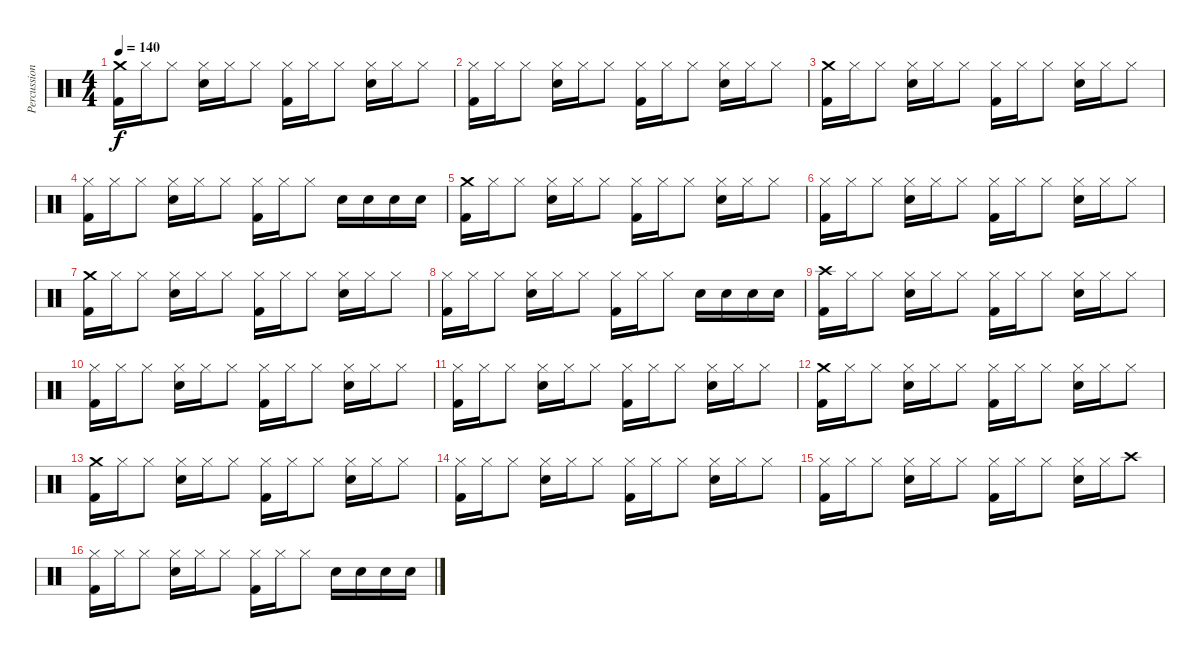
\track ("Percussion" "Percussion") {instrument percussion}
\staff {score}
\articulation defaults
\ts (4 4)
\tempo 140
\clef neutral
\ks c
("Crash medium (hit)" "Kick (hit) 2").16{dy f} "Hi-Hat (closed)".16 "Hi-Hat (closed)".8 ("Hi-Hat (closed)" "Electric Snare (hit)").16 "Hi-Hat (closed)".16 "Hi-Hat (closed)".8 ("Hi-Hat (closed)" "Kick (hit) 2").16 "Hi-Hat (closed)".16 "Hi-Hat (closed)".8 ("Hi-Hat (closed)" "Electric Snare (hit)").16 "Hi-Hat (closed)".16 "Hi-Hat (closed)".8 |
("Hi-Hat (closed)" "Kick (hit) 2").16 "Hi-Hat (closed)".16 "Hi-Hat (closed)".8 ("Hi-Hat (closed)" "Electric Snare (hit)").16 "Hi-Hat (closed)".16 "Hi-Hat (closed)".8 ("Hi-Hat (closed)" "Kick (hit) 2").16 "Hi-Hat (closed)".16 "Hi-Hat (closed)".8 ("Hi-Hat (closed)" "Electric Snare (hit)").16 "Hi-Hat (closed)".16 "Hi-Hat (closed)".8 |
("Crash medium (hit)" "Kick (hit) 2").16 "Hi-Hat (closed)".16 "Hi-Hat (closed)".8 ("Hi-Hat (closed)" "Electric Snare (hit)").16 "Hi-Hat (closed)".16 "Hi-Hat (closed)".8 ("Hi-Hat (closed)" "Kick (hit) 2").16 "Hi-Hat (closed)".16 "Hi-Hat (closed)".8 ("Hi-Hat (closed)" "Electric Snare (hit)").16 "Hi-Hat (closed)".16 "Hi-Hat (closed)".8 |
("Hi-Hat (closed)" "Kick (hit) 2").16 "Hi-Hat (closed)".16 "Hi-Hat (closed)".8 ("Hi-Hat (closed)" "Electric Snare (hit)").16 "Hi-Hat (closed)".16 "Hi-Hat (closed)".8 ("Hi-Hat (closed)" "Kick (hit) 2").16 "Hi-Hat (closed)".16 "Hi-Hat (closed)".8 "Electric Snare (hit)".16 "Electric Snare (hit)".16 "Electric Snare (hit)".16 "Electric Snare (hit)".16 |
("Crash medium (hit)" "Kick (hit) 2").16 "Hi-Hat (closed)".16 "Hi-Hat (closed)".8 ("Hi-Hat (closed)" "Electric Snare (hit)").16 "Hi-Hat (closed)".16 "Hi-Hat (closed)".8 ("Hi-Hat (closed)" "Kick (hit) 2").16 "Hi-Hat (closed)".16 "Hi-Hat (closed)".8 ("Hi-Hat (closed)" "Electric Snare (hit)").16 "Hi-Hat (closed)".16 "Hi-Hat (closed)".8 |
("Hi-Hat (closed)" "Kick (hit) 2").16 "Hi-Hat (closed)".16 "Hi-Hat (closed)".8 ("Hi-Hat (closed)" "Electric Snare (hit)").16 "Hi-Hat (closed)".16 "Hi-Hat (closed)".8 ("Hi-Hat (closed)" "Kick (hit) 2").16 "Hi-Hat (closed)".16 "Hi-Hat (closed)".8 ("Hi-Hat (closed)" "Electric Snare (hit)").16 "Hi-Hat (closed)".16 "Hi-Hat (closed)".8 |
("Crash medium (hit)" "Kick (hit) 2").16 "Hi-Hat (closed)".16 "Hi-Hat (closed)".8 ("Hi-Hat (closed)" "Electric Snare (hit)").16 "Hi-Hat (closed)".16 "Hi-Hat (closed)".8 ("Hi-Hat (closed)" "Kick (hit) 2").16 "Hi-Hat (closed)".16 "Hi-Hat (closed)".8 ("Hi-Hat (closed)" "Electric Snare (hit)").16 "Hi-Hat (closed)".16 "Hi-Hat (closed)".8 |
("Hi-Hat (closed)" "Kick (hit) 2").16 "Hi-Hat (closed)".16 "Hi-Hat (closed)".8 ("Hi-Hat (closed)" "Electric Snare (hit)").16 "Hi-Hat (closed)".16 "Hi-Hat (closed)".8 ("Hi-Hat (closed)" "Kick (hit) 2").16 "Hi-Hat (closed)".16 "Hi-Hat (closed)".8 "Electric Snare (hit)".16 "Electric Snare (hit)".16 "Electric Snare (hit)".16 "Electric Snare (hit)".16 |
("Crash high (hit)" "Kick (hit) 2").16 "Hi-Hat (closed)".16 "Hi-Hat (closed)".8 ("Hi-Hat (closed)" "Electric Snare (hit)").16 "Hi-Hat (closed)".16 "Hi-Hat (closed)".8 ("Hi-Hat (closed)" "Kick (hit) 2").16 "Hi-Hat (closed)".16 "Hi-Hat (closed)".8 ("Hi-Hat (closed)" "Electric Snare (hit)").16 "Hi-Hat (closed)".16 "Hi-Hat (closed)".8 |
("Hi-Hat (closed)" "Kick (hit) 2").16 "Hi-Hat (closed)".16 "Hi-Hat (closed)".8 ("Hi-Hat (closed)" "Electric Snare (hit)").16 "Hi-Hat (closed)".16 "Hi-Hat (closed)".8 ("Hi-Hat (closed)" "Kick (hit) 2").16 "Hi-Hat (closed)".16 "Hi-Hat (closed)".8 ("Hi-Hat (closed)" "Electric Snare (hit)").16 "Hi-Hat (closed)".16 "Hi-Hat (closed)".8 |
("Hi-Hat (closed)" "Kick (hit) 2").16 "Hi-Hat (closed)".16 "Hi-Hat (closed)".8 ("Hi-Hat (closed)" "Electric Snare (hit)").16 "Hi-Hat (closed)".16 "Hi-Hat (closed)".8 ("Hi-Hat (closed)" "Kick (hit) 2").16 "Hi-Hat (closed)".16 "Hi-Hat (closed)".8 ("Hi-Hat (closed)" "Electric Snare (hit)").16 "Hi-Hat (closed)".16 "Hi-Hat (closed)".8 |
("Crash medium (hit)" "Kick (hit) 2").16 "Hi-Hat (closed)".16 "Hi-Hat (closed)".8 ("Hi-Hat (closed)" "Electric Snare (hit)").16 "Hi-Hat (closed)".16 "Hi-Hat (closed)".8 ("Hi-Hat (closed)" "Kick (hit) 2").16 "Hi-Hat (closed)".16 "Hi-Hat (closed)".8 ("Hi-Hat (closed)" "Electric Snare (hit)").16 "Hi-Hat (closed)".16 "Hi-Hat (closed)".8 |
("Crash medium (hit)" "Kick (hit) 2").16 "Hi-Hat (closed)".16 "Hi-Hat (closed)".8 ("Hi-Hat (closed)" "Electric Snare (hit)").16 "Hi-Hat (closed)".16 "Hi-Hat (closed)".8 ("Hi-Hat (closed)" "Kick (hit) 2").16 "Hi-Hat (closed)".16 "Hi-Hat (closed)".8 ("Hi-Hat (closed)" "Electric Snare (hit)").16 "Hi-Hat (closed)".16 "Hi-Hat (closed)".8 |
("Hi-Hat (closed)" "Kick (hit) 2").16 "Hi-Hat (closed)".16 "Hi-Hat (closed)".8 ("Hi-Hat (closed)" "Electric Snare (hit)").16 "Hi-Hat (closed)".16 "Hi-Hat (closed)".8 ("Hi-Hat (closed)" "Kick (hit) 2").16 "Hi-Hat (closed)".16 "Hi-Hat (closed)".8 ("Hi-Hat (closed)" "Electric Snare (hit)").16 "Hi-Hat (closed)".16 "Hi-Hat (closed)".8 |
("Hi-Hat (closed)" "Kick (hit) 2").16 "Hi-Hat (closed)".16 "Hi-Hat (closed)".8 ("Hi-Hat (closed)" "Electric Snare (hit)").16 "Hi-Hat (closed)".16 "Hi-Hat (closed)".8 ("Hi-Hat (closed)" "Kick (hit) 2").16 "Hi-Hat (closed)".16 "Hi-Hat (closed)".8 ("Hi-Hat (closed)" "Electric Snare (hit)").16 "Hi-Hat (closed)".16 "Crash high (hit)".8 |
("Hi-Hat (closed)" "Kick (hit) 2").16 "Hi-Hat (closed)".16 "Hi-Hat (closed)".8 ("Hi-Hat (closed)" "Electric Snare (hit)").16 "Hi-Hat (closed)".16 "Hi-Hat (closed)".8 ("Hi-Hat (closed)" "Kick (hit) 2").16 "Hi-Hat (closed)".16 "Hi-Hat (closed)".8 "Electric Snare (hit)".16 "Electric Snare (hit)".16 "Electric Snare (hit)".16 "Electric Snare (hit)".16
